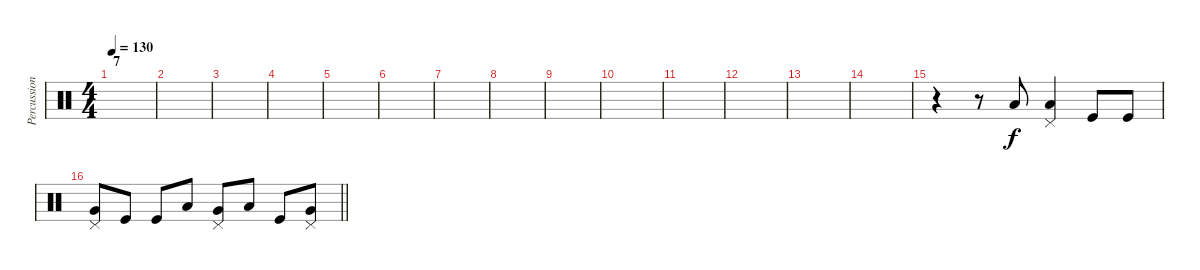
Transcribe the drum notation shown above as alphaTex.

\track ("Percussioni" "Percussion") {instrument percussion}
\staff {score}
\articulation defaults
\ts (4 4)
\section ("" "7")
\tempo 130
\clef neutral
\ks c
|
|
|
|
|
|
|
|
|
|
|
|
|
|
r.4 r.8 "Low Floor Tom (hit)".8 ("Low Floor Tom (hit)" "Pedal Hi-Hat (hit)").4 "Kick (hit)".8 "Kick (hit)".8 |
\barLineRight lightlight
("Very Low Tom (hit)" "Pedal Hi-Hat (hit)").8 "Kick (hit)".8 "Kick (hit)".8 "Low Floor Tom (hit)".8 ("Very Low Tom (hit)" "Pedal Hi-Hat (hit)").8 "Low Floor Tom (hit)".8 "Kick (hit)".8 ("Very Low Tom (hit)" "Pedal Hi-Hat (hit)").8
